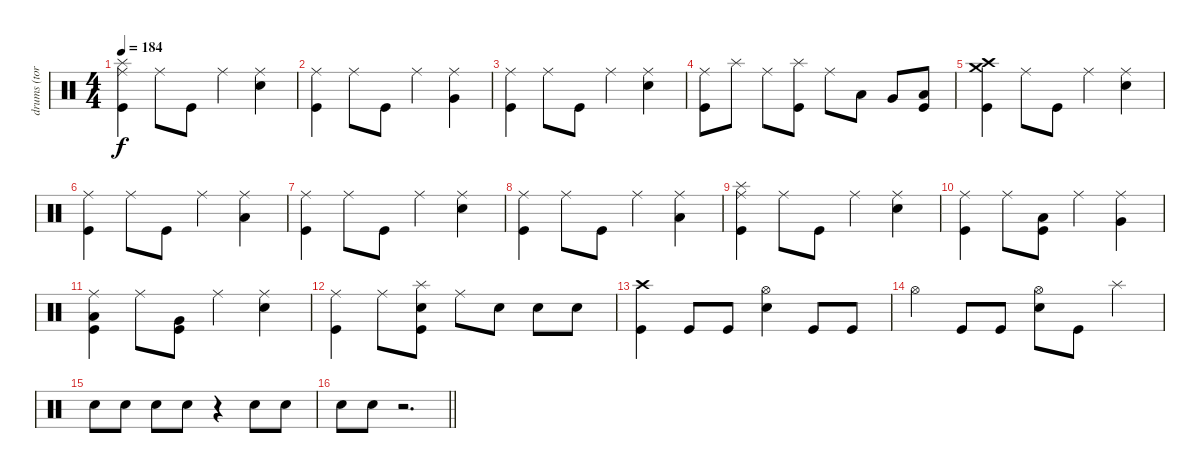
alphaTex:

\track ("drums (tora)" "drums (tor") {instrument percussion}
\staff {score}
\articulation defaults
\ts (4 4)
\tempo 184
\clef neutral
\ks c
("Splash (hit)" "Ride (middle)" "Kick (hit)").4{dy f} "Ride (middle)".8 "Kick (hit)".8 "Ride (middle)".4 ("Ride (middle)" "Snare (hit) 2").4 |
("Ride (middle)" "Kick (hit)").4 "Ride (middle)".8 "Kick (hit)".8 "Ride (middle)".4 ("Ride (middle)" "Very Low Tom (hit)").4 |
("Ride (middle)" "Kick (hit)").4 "Ride (middle)".8 "Kick (hit)".8 "Ride (middle)".4 ("Ride (middle)" "Snare (hit) 2").4 |
("Ride (middle)" "Kick (hit)").8 "Splash (hit)".8 "Ride (middle)".8 ("Splash (hit)" "Kick (hit)").8 "Ride (middle)".8 "Low Tom (hit)".8 "Very Low Tom (hit)".8 ("Low Floor Tom (hit)" "Kick (hit)").8 |
("Crash high (hit)" "Crash medium (hit)" "Kick (hit)").4 "Ride (middle)".8 "Kick (hit)".8 "Ride (middle)".4 ("Ride (middle)" "Snare (hit) 2").4 |
("Ride (middle)" "Kick (hit)").4 "Ride (middle)".8 "Kick (hit)".8 "Ride (middle)".4 ("Ride (middle)" "Low Tom (hit)").4 |
("Ride (middle)" "Kick (hit)").4 "Ride (middle)".8 "Kick (hit)".8 "Ride (middle)".4 ("Ride (middle)" "Snare (hit) 2").4 |
("Ride (middle)" "Kick (hit)").4 "Ride (middle)".8 "Kick (hit)".8 "Ride (middle)".4 ("Ride (middle)" "Low Tom (hit)").4 |
("Splash (hit)" "Ride (middle)" "Kick (hit)").4 "Ride (middle)".8 "Kick (hit)".8 "Ride (middle)".4 ("Ride (middle)" "Snare (hit) 2").4 |
("Ride (middle)" "Kick (hit)").4 "Ride (middle)".8 ("Low Tom (hit)" "Kick (hit)").8 "Ride (middle)".4 ("Ride (middle)" "Very Low Tom (hit)").4 |
("Ride (middle)" "Low Floor Tom (hit)" "Kick (hit)").4 "Ride (middle)".8 ("Very Low Tom (hit)" "Kick (hit)").8 "Ride (middle)".4 ("Ride (middle)" "Snare (hit) 2").4 |
("Ride (middle)" "Kick (hit)").4 "Ride (middle)".8 ("Splash (hit)" "Snare (hit) 2" "Kick (hit)").8 "Ride (middle)".8 "Snare (hit) 2".8 "Snare (hit) 2".8 "Snare (hit) 2".8 |
("Crash high (hit)" "Kick (hit)").4 "Kick (hit)".8 "Kick (hit)".8 ("Hi-Hat (open)" "Snare (hit) 2").4 "Kick (hit)".8 "Kick (hit)".8 |
"Hi-Hat (open)".4 "Kick (hit)".8 "Kick (hit)".8 ("Hi-Hat (open)" "Snare (hit) 2").8 "Kick (hit)".8 "Splash (hit)".4 |
"Snare (hit) 2".8 "Snare (hit) 2".8 "Snare (hit) 2".8 "Snare (hit) 2".8 r.4 "Snare (hit) 2".8 "Snare (hit) 2".8 |
\barLineRight lightlight "Snare (hit) 2".8 "Snare (hit) 2".8
r.2{d}
